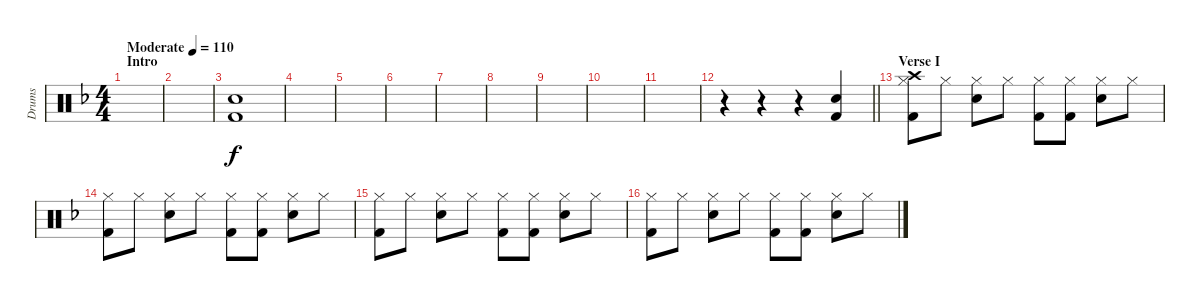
\track ("Drums" "Drums") {instrument percussion}
\staff {score}
\articulation defaults
\ts (4 4)
\section ("" "Intro")
\tempo (110 "Moderate")
\clef neutral
\ks f
|
|
("Snare (hit) 2" "Kick (hit) 2").1 |
|
|
|
|
|
|
|
|
\barLineRight lightlight
r.4 r.4 r.4 ("Snare (hit) 2" "Kick (hit) 2").4 |
\section ("" "Verse I")
("Crash high (hit)" "Hi-Hat (closed)" "Kick (hit) 2").8 "Hi-Hat (closed)".8 ("Hi-Hat (closed)" "Snare (hit) 2").8 "Hi-Hat (closed)".8 ("Hi-Hat (closed)" "Kick (hit) 2").8 ("Hi-Hat (closed)" "Kick (hit) 2").8 ("Hi-Hat (closed)" "Snare (hit) 2").8 "Hi-Hat (closed)".8 |
("Hi-Hat (closed)" "Kick (hit) 2").8 "Hi-Hat (closed)".8 ("Hi-Hat (closed)" "Snare (hit) 2").8 "Hi-Hat (closed)".8 ("Hi-Hat (closed)" "Kick (hit) 2").8 ("Hi-Hat (closed)" "Kick (hit) 2").8 ("Hi-Hat (closed)" "Snare (hit) 2").8 "Hi-Hat (closed)".8 |
("Hi-Hat (closed)" "Kick (hit) 2").8 "Hi-Hat (closed)".8 ("Hi-Hat (closed)" "Snare (hit) 2").8 "Hi-Hat (closed)".8 ("Hi-Hat (closed)" "Kick (hit) 2").8 ("Hi-Hat (closed)" "Kick (hit) 2").8 ("Hi-Hat (closed)" "Snare (hit) 2").8 "Hi-Hat (closed)".8 |
("Hi-Hat (closed)" "Kick (hit) 2").8 "Hi-Hat (closed)".8 ("Hi-Hat (closed)" "Snare (hit) 2").8 "Hi-Hat (closed)".8 ("Hi-Hat (closed)" "Kick (hit) 2").8 ("Hi-Hat (closed)" "Kick (hit) 2").8 ("Hi-Hat (closed)" "Snare (hit) 2").8 "Hi-Hat (closed)".8
